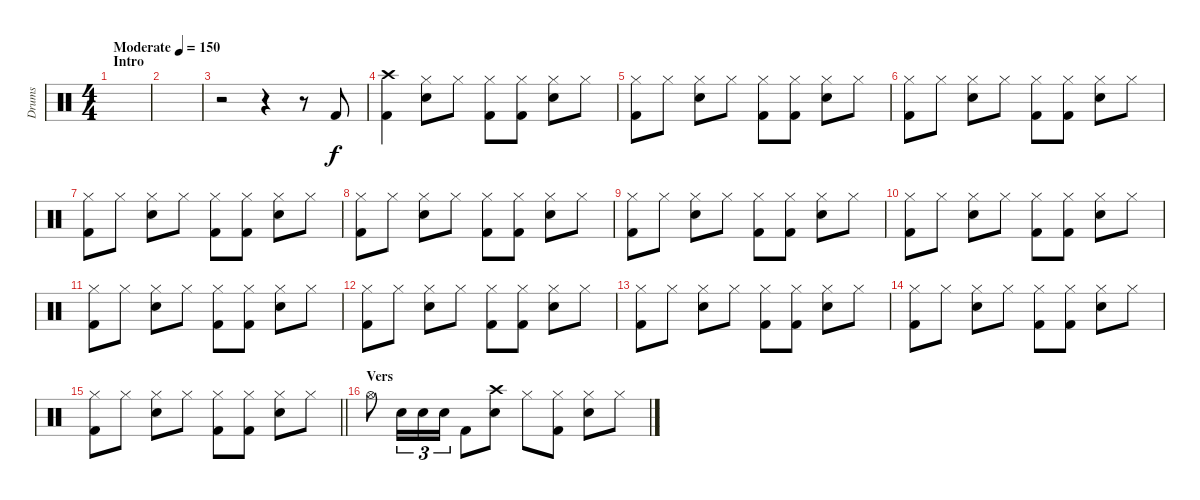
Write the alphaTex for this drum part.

\track ("Drums" "Drums") {instrument percussion}
\staff {score}
\articulation defaults
\ts (4 4)
\section ("" "Intro")
\tempo (150 "Moderate")
\clef neutral
\ks c
|
|
r.2 r.4 r.8 "Kick (hit) 2".8 |
("Crash high (hit)" "Kick (hit) 2").4 ("Hi-Hat (closed)" "Snare (hit) 2").8 "Hi-Hat (closed)".8 ("Hi-Hat (closed)" "Kick (hit) 2").8 ("Hi-Hat (closed)" "Kick (hit) 2").8 ("Hi-Hat (closed)" "Snare (hit) 2").8 "Hi-Hat (closed)".8 |
("Hi-Hat (closed)" "Kick (hit) 2").8 "Hi-Hat (closed)".8 ("Hi-Hat (closed)" "Snare (hit) 2").8 "Hi-Hat (closed)".8 ("Hi-Hat (closed)" "Kick (hit) 2").8 ("Hi-Hat (closed)" "Kick (hit) 2").8 ("Hi-Hat (closed)" "Snare (hit) 2").8 "Hi-Hat (closed)".8 |
("Hi-Hat (closed)" "Kick (hit) 2").8 "Hi-Hat (closed)".8 ("Hi-Hat (closed)" "Snare (hit) 2").8 "Hi-Hat (closed)".8 ("Hi-Hat (closed)" "Kick (hit) 2").8 ("Hi-Hat (closed)" "Kick (hit) 2").8 ("Hi-Hat (closed)" "Snare (hit) 2").8 "Hi-Hat (closed)".8 |
("Hi-Hat (closed)" "Kick (hit) 2").8 "Hi-Hat (closed)".8 ("Hi-Hat (closed)" "Snare (hit) 2").8 "Hi-Hat (closed)".8 ("Hi-Hat (closed)" "Kick (hit) 2").8 ("Hi-Hat (closed)" "Kick (hit) 2").8 ("Hi-Hat (closed)" "Snare (hit) 2").8 "Hi-Hat (closed)".8 |
("Hi-Hat (closed)" "Kick (hit) 2").8 "Hi-Hat (closed)".8 ("Hi-Hat (closed)" "Snare (hit) 2").8 "Hi-Hat (closed)".8 ("Hi-Hat (closed)" "Kick (hit) 2").8 ("Hi-Hat (closed)" "Kick (hit) 2").8 ("Hi-Hat (closed)" "Snare (hit) 2").8 "Hi-Hat (closed)".8 |
("Hi-Hat (closed)" "Kick (hit) 2").8 "Hi-Hat (closed)".8 ("Hi-Hat (closed)" "Snare (hit) 2").8 "Hi-Hat (closed)".8 ("Hi-Hat (closed)" "Kick (hit) 2").8 ("Hi-Hat (closed)" "Kick (hit) 2").8 ("Hi-Hat (closed)" "Snare (hit) 2").8 "Hi-Hat (closed)".8 |
("Hi-Hat (closed)" "Kick (hit) 2").8 "Hi-Hat (closed)".8 ("Hi-Hat (closed)" "Snare (hit) 2").8 "Hi-Hat (closed)".8 ("Hi-Hat (closed)" "Kick (hit) 2").8 ("Hi-Hat (closed)" "Kick (hit) 2").8 ("Hi-Hat (closed)" "Snare (hit) 2").8 "Hi-Hat (closed)".8 |
("Hi-Hat (closed)" "Kick (hit) 2").8 "Hi-Hat (closed)".8 ("Hi-Hat (closed)" "Snare (hit) 2").8 "Hi-Hat (closed)".8 ("Hi-Hat (closed)" "Kick (hit) 2").8 ("Hi-Hat (closed)" "Kick (hit) 2").8 ("Hi-Hat (closed)" "Snare (hit) 2").8 "Hi-Hat (closed)".8 |
("Hi-Hat (closed)" "Kick (hit) 2").8 "Hi-Hat (closed)".8 ("Hi-Hat (closed)" "Snare (hit) 2").8 "Hi-Hat (closed)".8 ("Hi-Hat (closed)" "Kick (hit) 2").8 ("Hi-Hat (closed)" "Kick (hit) 2").8 ("Hi-Hat (closed)" "Snare (hit) 2").8 "Hi-Hat (closed)".8 |
("Hi-Hat (closed)" "Kick (hit) 2").8 "Hi-Hat (closed)".8 ("Hi-Hat (closed)" "Snare (hit) 2").8 "Hi-Hat (closed)".8 ("Hi-Hat (closed)" "Kick (hit) 2").8 ("Hi-Hat (closed)" "Kick (hit) 2").8 ("Hi-Hat (closed)" "Snare (hit) 2").8 "Hi-Hat (closed)".8 |
("Hi-Hat (closed)" "Kick (hit) 2").8 "Hi-Hat (closed)".8 ("Hi-Hat (closed)" "Snare (hit) 2").8 "Hi-Hat (closed)".8 ("Hi-Hat (closed)" "Kick (hit) 2").8 ("Hi-Hat (closed)" "Kick (hit) 2").8 ("Hi-Hat (closed)" "Snare (hit) 2").8 "Hi-Hat (closed)".8 |
\barLineRight lightlight
("Hi-Hat (closed)" "Kick (hit) 2").8 "Hi-Hat (closed)".8 ("Hi-Hat (closed)" "Snare (hit) 2").8 "Hi-Hat (closed)".8 ("Hi-Hat (closed)" "Kick (hit) 2").8 ("Hi-Hat (closed)" "Kick (hit) 2").8 ("Hi-Hat (closed)" "Snare (hit) 2").8 "Hi-Hat (closed)".8 |
\section ("" "Vers")
"Hi-Hat (open)".8 "Snare (hit) 2".16{tu (3 2)} "Snare (hit) 2".16{tu (3 2)} "Snare (hit) 2".16{tu (3 2)} "Kick (hit) 2".8 ("Crash high (hit)" "Snare (hit) 2").8 "Hi-Hat (closed)".8 ("Hi-Hat (closed)" "Kick (hit) 2").8 ("Hi-Hat (closed)" "Snare (hit) 2").8 "Hi-Hat (closed)".8
